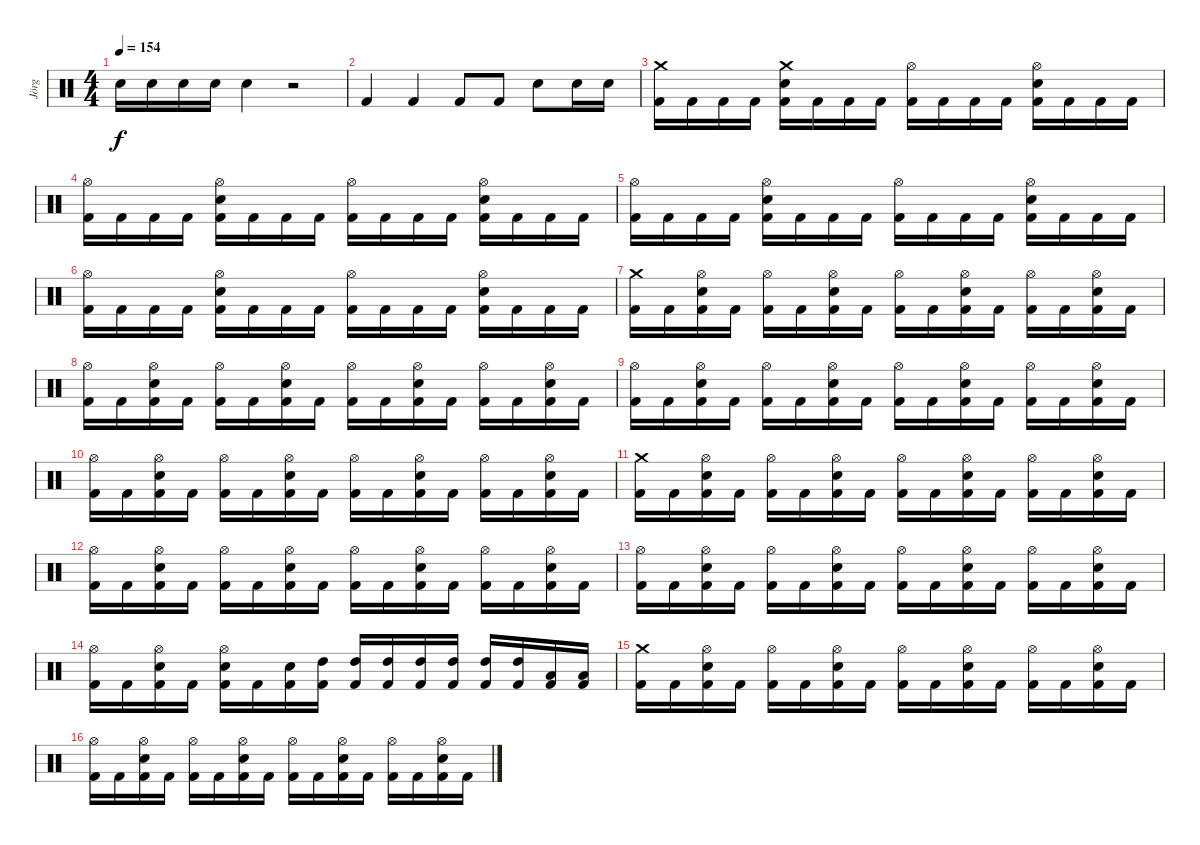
\track ("Jörg" "Jörg") {instrument percussion}
\staff {score}
\articulation defaults
\ts (4 4)
\tempo 154
\clef neutral
\ks c "Snare (hit) 2".16{dy f} "Snare (hit) 2".16 "Snare (hit) 2".16 "Snare (hit) 2".16 "Snare (hit) 2".4
r.2 |
"Kick (hit) 2".4 "Kick (hit) 2".4 "Kick (hit) 2".8 "Kick (hit) 2".8 "Snare (hit) 2".8 "Snare (hit) 2".16 "Snare (hit) 2".16 |
("Crash medium (hit)" "Kick (hit) 2").16 "Kick (hit) 2".16 "Kick (hit) 2".16 "Kick (hit) 2".16 ("Crash medium (hit)" "Kick (hit) 2" "Snare (hit) 2").16 "Kick (hit) 2".16 "Kick (hit) 2".16 "Kick (hit) 2".16 ("Kick (hit) 2" "Hi-Hat (open)").16 "Kick (hit) 2".16 "Kick (hit) 2".16 "Kick (hit) 2".16 ("Kick (hit) 2" "Snare (hit) 2" "Hi-Hat (open)").16 "Kick (hit) 2".16 "Kick (hit) 2".16 "Kick (hit) 2".16 |
("Hi-Hat (open)" "Kick (hit) 2").16 "Kick (hit) 2".16 "Kick (hit) 2".16 "Kick (hit) 2".16 ("Hi-Hat (open)" "Kick (hit) 2" "Snare (hit) 2").16 "Kick (hit) 2".16 "Kick (hit) 2".16 "Kick (hit) 2".16 ("Kick (hit) 2" "Hi-Hat (open)").16 "Kick (hit) 2".16 "Kick (hit) 2".16 "Kick (hit) 2".16 ("Kick (hit) 2" "Snare (hit) 2" "Hi-Hat (open)").16 "Kick (hit) 2".16 "Kick (hit) 2".16 "Kick (hit) 2".16 |
("Hi-Hat (open)" "Kick (hit) 2").16 "Kick (hit) 2".16 "Kick (hit) 2".16 "Kick (hit) 2".16 ("Hi-Hat (open)" "Kick (hit) 2" "Snare (hit) 2").16 "Kick (hit) 2".16 "Kick (hit) 2".16 "Kick (hit) 2".16 ("Kick (hit) 2" "Hi-Hat (open)").16 "Kick (hit) 2".16 "Kick (hit) 2".16 "Kick (hit) 2".16 ("Kick (hit) 2" "Snare (hit) 2" "Hi-Hat (open)").16 "Kick (hit) 2".16 "Kick (hit) 2".16 "Kick (hit) 2".16 |
("Hi-Hat (open)" "Kick (hit) 2").16 "Kick (hit) 2".16 "Kick (hit) 2".16 "Kick (hit) 2".16 ("Hi-Hat (open)" "Kick (hit) 2" "Snare (hit) 2").16 "Kick (hit) 2".16 "Kick (hit) 2".16 "Kick (hit) 2".16 ("Kick (hit) 2" "Hi-Hat (open)").16 "Kick (hit) 2".16 "Kick (hit) 2".16 "Kick (hit) 2".16 ("Kick (hit) 2" "Snare (hit) 2" "Hi-Hat (open)").16 "Kick (hit) 2".16 "Kick (hit) 2".16 "Kick (hit) 2".16 |
("Crash medium (hit)" "Kick (hit) 2").16 "Kick (hit) 2".16 ("Snare (hit) 2" "Hi-Hat (open)" "Kick (hit) 2").16 "Kick (hit) 2".16 ("Hi-Hat (open)" "Kick (hit) 2").16 "Kick (hit) 2".16 ("Snare (hit) 2" "Hi-Hat (open)" "Kick (hit) 2").16 "Kick (hit) 2".16 ("Hi-Hat (open)" "Kick (hit) 2").16 "Kick (hit) 2".16 ("Snare (hit) 2" "Hi-Hat (open)" "Kick (hit) 2").16 "Kick (hit) 2".16 ("Hi-Hat (open)" "Kick (hit) 2").16 "Kick (hit) 2".16 ("Snare (hit) 2" "Hi-Hat (open)" "Kick (hit) 2").16 "Kick (hit) 2".16 |
("Hi-Hat (open)" "Kick (hit) 2").16 "Kick (hit) 2".16 ("Snare (hit) 2" "Hi-Hat (open)" "Kick (hit) 2").16 "Kick (hit) 2".16 ("Hi-Hat (open)" "Kick (hit) 2").16 "Kick (hit) 2".16 ("Snare (hit) 2" "Hi-Hat (open)" "Kick (hit) 2").16 "Kick (hit) 2".16 ("Hi-Hat (open)" "Kick (hit) 2").16 "Kick (hit) 2".16 ("Snare (hit) 2" "Hi-Hat (open)" "Kick (hit) 2").16 "Kick (hit) 2".16 ("Hi-Hat (open)" "Kick (hit) 2").16 "Kick (hit) 2".16 ("Snare (hit) 2" "Hi-Hat (open)" "Kick (hit) 2").16 "Kick (hit) 2".16 |
("Hi-Hat (open)" "Kick (hit) 2").16 "Kick (hit) 2".16 ("Snare (hit) 2" "Hi-Hat (open)" "Kick (hit) 2").16 "Kick (hit) 2".16 ("Hi-Hat (open)" "Kick (hit) 2").16 "Kick (hit) 2".16 ("Snare (hit) 2" "Hi-Hat (open)" "Kick (hit) 2").16 "Kick (hit) 2".16 ("Hi-Hat (open)" "Kick (hit) 2").16 "Kick (hit) 2".16 ("Snare (hit) 2" "Hi-Hat (open)" "Kick (hit) 2").16 "Kick (hit) 2".16 ("Hi-Hat (open)" "Kick (hit) 2").16 "Kick (hit) 2".16 ("Snare (hit) 2" "Hi-Hat (open)" "Kick (hit) 2").16 "Kick (hit) 2".16 |
("Hi-Hat (open)" "Kick (hit) 2").16 "Kick (hit) 2".16 ("Snare (hit) 2" "Hi-Hat (open)" "Kick (hit) 2").16 "Kick (hit) 2".16 ("Hi-Hat (open)" "Kick (hit) 2").16 "Kick (hit) 2".16 ("Snare (hit) 2" "Hi-Hat (open)" "Kick (hit) 2").16 "Kick (hit) 2".16 ("Hi-Hat (open)" "Kick (hit) 2").16 "Kick (hit) 2".16 ("Snare (hit) 2" "Hi-Hat (open)" "Kick (hit) 2").16 "Kick (hit) 2".16 ("Hi-Hat (open)" "Kick (hit) 2").16 "Kick (hit) 2".16 ("Snare (hit) 2" "Hi-Hat (open)" "Kick (hit) 2").16 "Kick (hit) 2".16 |
("Crash medium (hit)" "Kick (hit) 2").16 "Kick (hit) 2".16 ("Snare (hit) 2" "Hi-Hat (open)" "Kick (hit) 2").16 "Kick (hit) 2".16 ("Hi-Hat (open)" "Kick (hit) 2").16 "Kick (hit) 2".16 ("Snare (hit) 2" "Hi-Hat (open)" "Kick (hit) 2").16 "Kick (hit) 2".16 ("Hi-Hat (open)" "Kick (hit) 2").16 "Kick (hit) 2".16 ("Snare (hit) 2" "Hi-Hat (open)" "Kick (hit) 2").16 "Kick (hit) 2".16 ("Hi-Hat (open)" "Kick (hit) 2").16 "Kick (hit) 2".16 ("Snare (hit) 2" "Hi-Hat (open)" "Kick (hit) 2").16 "Kick (hit) 2".16 |
("Hi-Hat (open)" "Kick (hit) 2").16 "Kick (hit) 2".16 ("Snare (hit) 2" "Hi-Hat (open)" "Kick (hit) 2").16 "Kick (hit) 2".16 ("Hi-Hat (open)" "Kick (hit) 2").16 "Kick (hit) 2".16 ("Snare (hit) 2" "Hi-Hat (open)" "Kick (hit) 2").16 "Kick (hit) 2".16 ("Hi-Hat (open)" "Kick (hit) 2").16 "Kick (hit) 2".16 ("Snare (hit) 2" "Hi-Hat (open)" "Kick (hit) 2").16 "Kick (hit) 2".16 ("Hi-Hat (open)" "Kick (hit) 2").16 "Kick (hit) 2".16 ("Snare (hit) 2" "Hi-Hat (open)" "Kick (hit) 2").16 "Kick (hit) 2".16 |
("Hi-Hat (open)" "Kick (hit) 2").16 "Kick (hit) 2".16 ("Snare (hit) 2" "Hi-Hat (open)" "Kick (hit) 2").16 "Kick (hit) 2".16 ("Hi-Hat (open)" "Kick (hit) 2").16 "Kick (hit) 2".16 ("Snare (hit) 2" "Hi-Hat (open)" "Kick (hit) 2").16 "Kick (hit) 2".16 ("Hi-Hat (open)" "Kick (hit) 2").16 "Kick (hit) 2".16 ("Snare (hit) 2" "Hi-Hat (open)" "Kick (hit) 2").16 "Kick (hit) 2".16 ("Hi-Hat (open)" "Kick (hit) 2").16 "Kick (hit) 2".16 ("Snare (hit) 2" "Hi-Hat (open)" "Kick (hit) 2").16 "Kick (hit) 2".16 |
("Hi-Hat (open)" "Kick (hit) 2").16 "Kick (hit) 2".16 ("Snare (hit) 2" "Hi-Hat (open)" "Kick (hit) 2").16 "Kick (hit) 2".16 ("Snare (hit) 2" "Hi-Hat (open)" "Kick (hit) 2").16 "Kick (hit) 2".16 ("Snare (hit) 2" "Kick (hit) 2").16 ("High Tom (hit)" "Kick (hit) 2").16 ("High Tom (hit)" "Kick (hit) 2").16 ("High Tom (hit)" "Kick (hit) 2").16 ("High Tom (hit)" "Kick (hit) 2").16 ("High Tom (hit)" "Kick (hit) 2").16 ("High Tom (hit)" "Kick (hit) 2").16 ("High Tom (hit)" "Kick (hit) 2").16 ("Low Tom (hit)" "Kick (hit) 2").16 ("Low Tom (hit)" "Kick (hit) 2").16 |
("Crash medium (hit)" "Kick (hit) 2").16 "Kick (hit) 2".16 ("Snare (hit) 2" "Hi-Hat (open)" "Kick (hit) 2").16 "Kick (hit) 2".16 ("Hi-Hat (open)" "Kick (hit) 2").16 "Kick (hit) 2".16 ("Snare (hit) 2" "Hi-Hat (open)" "Kick (hit) 2").16 "Kick (hit) 2".16 ("Hi-Hat (open)" "Kick (hit) 2").16 "Kick (hit) 2".16 ("Snare (hit) 2" "Hi-Hat (open)" "Kick (hit) 2").16 "Kick (hit) 2".16 ("Hi-Hat (open)" "Kick (hit) 2").16 "Kick (hit) 2".16 ("Snare (hit) 2" "Hi-Hat (open)" "Kick (hit) 2").16 "Kick (hit) 2".16 |
("Hi-Hat (open)" "Kick (hit) 2").16 "Kick (hit) 2".16 ("Snare (hit) 2" "Hi-Hat (open)" "Kick (hit) 2").16 "Kick (hit) 2".16 ("Hi-Hat (open)" "Kick (hit) 2").16 "Kick (hit) 2".16 ("Snare (hit) 2" "Hi-Hat (open)" "Kick (hit) 2").16 "Kick (hit) 2".16 ("Hi-Hat (open)" "Kick (hit) 2").16 "Kick (hit) 2".16 ("Snare (hit) 2" "Hi-Hat (open)" "Kick (hit) 2").16 "Kick (hit) 2".16 ("Hi-Hat (open)" "Kick (hit) 2").16 "Kick (hit) 2".16 ("Snare (hit) 2" "Hi-Hat (open)" "Kick (hit) 2").16 "Kick (hit) 2".16
